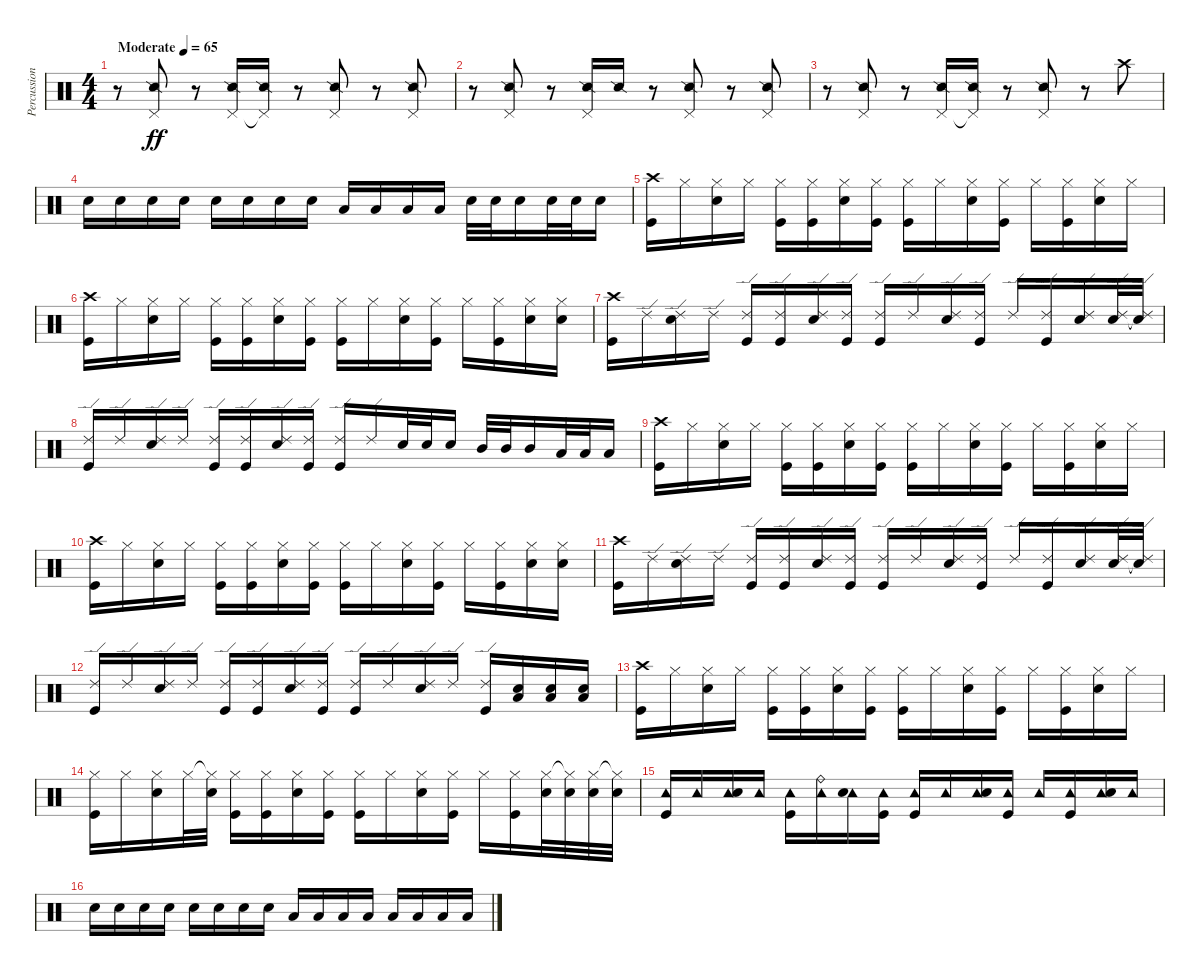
\track ("Percussioni" "Percussion") {instrument percussion}
\staff {score}
\articulation defaults
\ts (4 4)
\tempo (65 "Moderate")
\clef neutral
\ks c
r.8{dy ff} ("Pedal Hi-Hat (hit)" "Snare (side stick) 2").8 r.8 ("Pedal Hi-Hat (hit)" "Snare (side stick) 2").16 ("Pedal Hi-Hat (hit)"{t} "Snare (side stick) 2").16 r.8 ("Pedal Hi-Hat (hit)" "Snare (side stick) 2").8 r.8 ("Pedal Hi-Hat (hit)" "Snare (side stick) 2").8 |
r.8 ("Pedal Hi-Hat (hit)" "Snare (side stick) 2").8 r.8 ("Pedal Hi-Hat (hit)" "Snare (side stick) 2").16 "Snare (side stick) 2".16 r.8 ("Pedal Hi-Hat (hit)" "Snare (side stick) 2").8 r.8 ("Pedal Hi-Hat (hit)" "Snare (side stick) 2").8 |
r.8 ("Pedal Hi-Hat (hit)" "Snare (side stick) 2").8 r.8 ("Pedal Hi-Hat (hit)" "Snare (side stick) 2").16 ("Pedal Hi-Hat (hit)"{t} "Snare (side stick) 2").16 r.8 ("Pedal Hi-Hat (hit)" "Snare (side stick) 2").8 r.8 "Crash high (hit)".8 |
"Snare (hit) 2".16 "Snare (hit) 2".16 "Snare (hit) 2".16 "Snare (hit) 2".16 "Snare (hit) 2".16 "Snare (hit) 2".16 "Snare (hit) 2".16 "Snare (hit) 2".16 "Low Floor Tom (hit)".16 "Low Floor Tom (hit)".16 "Low Floor Tom (hit)".16 "Low Floor Tom (hit)".16 "Snare (hit) 2".32 "Snare (hit) 2".32 "Snare (hit) 2".16 "Snare (hit) 2".32 "Snare (hit) 2".32 "Snare (hit) 2".16 |
("Crash high (hit)" "Kick (hit)").16 "Hi-Hat (closed)".16 ("Hi-Hat (closed)" "Snare (hit) 2").16 "Hi-Hat (closed)".16 ("Hi-Hat (closed)" "Kick (hit)").16 ("Hi-Hat (closed)" "Kick (hit)").16 ("Hi-Hat (closed)" "Snare (hit) 2").16 ("Hi-Hat (closed)" "Kick (hit)").16 ("Hi-Hat (closed)" "Kick (hit)").16 "Hi-Hat (closed)".16 ("Hi-Hat (closed)" "Snare (hit) 2").16 ("Hi-Hat (closed)" "Kick (hit)").16 "Hi-Hat (closed)".16 ("Hi-Hat (closed)" "Kick (hit)").16 ("Hi-Hat (closed)" "Snare (hit) 2").16 "Hi-Hat (closed)".16 |
("Crash high (hit)" "Kick (hit)").16 "Hi-Hat (closed)".16 ("Hi-Hat (closed)" "Snare (hit) 2").16 "Hi-Hat (closed)".16 ("Hi-Hat (closed)" "Kick (hit)").16 ("Hi-Hat (closed)" "Kick (hit)").16 ("Hi-Hat (closed)" "Snare (hit) 2").16 ("Hi-Hat (closed)" "Kick (hit)").16 ("Hi-Hat (closed)" "Kick (hit)").16 "Hi-Hat (closed)".16 ("Hi-Hat (closed)" "Snare (hit) 2").16 ("Hi-Hat (closed)" "Kick (hit)").16 "Hi-Hat (closed)".16 ("Hi-Hat (closed)" "Kick (hit)").16 ("Hi-Hat (closed)" "Snare (hit) 2").16 ("Hi-Hat (closed)" "Snare (hit) 2").16 |
("Crash high (hit)" "Kick (hit)").16 "Ride (edge) 2".16 ("Ride (edge) 2" "Snare (hit) 2").16 "Ride (edge) 2".16 ("Ride (edge) 2" "Kick (hit)").16 ("Ride (edge) 2" "Kick (hit)").16 ("Ride (edge) 2" "Snare (hit) 2").16 ("Ride (edge) 2" "Kick (hit)").16 ("Ride (edge) 2" "Kick (hit)").16 "Ride (edge) 2".16 ("Ride (edge) 2" "Snare (hit) 2").16 ("Ride (edge) 2" "Kick (hit)").16 "Ride (edge) 2".16 ("Ride (edge) 2" "Kick (hit)").16 ("Ride (edge) 2" "Snare (hit) 2").16 ("Ride (edge) 2" "Snare (hit) 2").32 ("Ride (edge) 2"{t} "Snare (hit) 2").32 |
("Ride (edge) 2" "Kick (hit)").16 "Ride (edge) 2".16 ("Ride (edge) 2" "Snare (hit) 2").16 "Ride (edge) 2".16 ("Ride (edge) 2" "Kick (hit)").16 ("Ride (edge) 2" "Kick (hit)").16 ("Ride (edge) 2" "Snare (hit) 2").16 ("Ride (edge) 2" "Kick (hit)").16 ("Ride (edge) 2" "Kick (hit)").16 "Ride (edge) 2".16 "Snare (hit) 2".32 "Snare (hit) 2".32 "Snare (hit) 2".16 "Mid Tom (hit)".32 "Mid Tom (hit)".32 "Mid Tom (hit)".16 "Low Tom (hit)".32 "Low Tom (hit)".32 "Low Tom (hit)".16 |
("Crash high (hit)" "Kick (hit)").16 "Hi-Hat (closed)".16 ("Hi-Hat (closed)" "Snare (hit) 2").16 "Hi-Hat (closed)".16 ("Hi-Hat (closed)" "Kick (hit)").16 ("Hi-Hat (closed)" "Kick (hit)").16 ("Hi-Hat (closed)" "Snare (hit) 2").16 ("Hi-Hat (closed)" "Kick (hit)").16 ("Hi-Hat (closed)" "Kick (hit)").16 "Hi-Hat (closed)".16 ("Hi-Hat (closed)" "Snare (hit) 2").16 ("Hi-Hat (closed)" "Kick (hit)").16 "Hi-Hat (closed)".16 ("Hi-Hat (closed)" "Kick (hit)").16 ("Hi-Hat (closed)" "Snare (hit) 2").16 "Hi-Hat (closed)".16 |
("Crash high (hit)" "Kick (hit)").16 "Hi-Hat (closed)".16 ("Hi-Hat (closed)" "Snare (hit) 2").16 "Hi-Hat (closed)".16 ("Hi-Hat (closed)" "Kick (hit)").16 ("Hi-Hat (closed)" "Kick (hit)").16 ("Hi-Hat (closed)" "Snare (hit) 2").16 ("Hi-Hat (closed)" "Kick (hit)").16 ("Hi-Hat (closed)" "Kick (hit)").16 "Hi-Hat (closed)".16 ("Hi-Hat (closed)" "Snare (hit) 2").16 ("Hi-Hat (closed)" "Kick (hit)").16 "Hi-Hat (closed)".16 ("Hi-Hat (closed)" "Kick (hit)").16 ("Hi-Hat (closed)" "Snare (hit) 2").16 ("Hi-Hat (closed)" "Snare (hit) 2").16 |
("Crash high (hit)" "Kick (hit)").16 "Ride (edge) 2".16 ("Ride (edge) 2" "Snare (hit) 2").16 "Ride (edge) 2".16 ("Ride (edge) 2" "Kick (hit)").16 ("Ride (edge) 2" "Kick (hit)").16 ("Ride (edge) 2" "Snare (hit) 2").16 ("Ride (edge) 2" "Kick (hit)").16 ("Ride (edge) 2" "Kick (hit)").16 "Ride (edge) 2".16 ("Ride (edge) 2" "Snare (hit) 2").16 ("Ride (edge) 2" "Kick (hit)").16 "Ride (edge) 2".16 ("Ride (edge) 2" "Kick (hit)").16 ("Ride (edge) 2" "Snare (hit) 2").16 ("Ride (edge) 2" "Snare (hit) 2").32 ("Ride (edge) 2"{t} "Snare (hit) 2").32 |
("Ride (edge) 2" "Kick (hit)").16 "Ride (edge) 2".16 ("Ride (edge) 2" "Snare (hit) 2").16 "Ride (edge) 2".16 ("Ride (edge) 2" "Kick (hit)").16 ("Ride (edge) 2" "Kick (hit)").16 ("Ride (edge) 2" "Snare (hit) 2").16 ("Ride (edge) 2" "Kick (hit)").16 ("Ride (edge) 2" "Kick (hit)").16 "Ride (edge) 2".16 ("Ride (edge) 2" "Snare (hit) 2").16 "Ride (edge) 2".16 ("Ride (edge) 2" "Kick (hit)").16 ("Low Floor Tom (hit)" "Snare (hit) 2").16 ("Low Floor Tom (hit)" "Snare (hit) 2").16 ("Low Floor Tom (hit)" "Snare (hit) 2").16 |
("Crash high (hit)" "Kick (hit)").16 "Hi-Hat (closed)".16 ("Hi-Hat (closed)" "Snare (hit) 2").16 "Hi-Hat (closed)".16 ("Hi-Hat (closed)" "Kick (hit)").16 ("Hi-Hat (closed)" "Kick (hit)").16 ("Hi-Hat (closed)" "Snare (hit) 2").16 ("Hi-Hat (closed)" "Kick (hit)").16 ("Hi-Hat (closed)" "Kick (hit)").16 "Hi-Hat (closed)".16 ("Hi-Hat (closed)" "Snare (hit) 2").16 ("Hi-Hat (closed)" "Kick (hit)").16 "Hi-Hat (closed)".16 ("Hi-Hat (closed)" "Kick (hit)").16 ("Hi-Hat (closed)" "Snare (hit) 2").16 "Hi-Hat (closed)".16 |
("Hi-Hat (closed)" "Kick (hit)").16 "Hi-Hat (closed)".16 ("Hi-Hat (closed)" "Snare (hit) 2").16 "Hi-Hat (closed)".32 ("Hi-Hat (closed)"{t} "Snare (hit) 2").32 ("Hi-Hat (closed)" "Kick (hit)").16 ("Hi-Hat (closed)" "Kick (hit)").16 ("Hi-Hat (closed)" "Snare (hit) 2").16 ("Hi-Hat (closed)" "Kick (hit)").16 ("Hi-Hat (closed)" "Kick (hit)").16 "Hi-Hat (closed)".16 ("Hi-Hat (closed)" "Snare (hit) 2").16 ("Hi-Hat (closed)" "Kick (hit)").16 "Hi-Hat (closed)".16 ("Hi-Hat (closed)" "Kick (hit)").16 ("Hi-Hat (closed)" "Snare (hit) 2").32 ("Hi-Hat (closed)"{t} "Snare (hit) 2").32 ("Hi-Hat (closed)" "Snare (hit) 2").32 ("Hi-Hat (closed)"{t} "Snare (hit) 2").32 |
("Tambourine (hit)" "Kick (hit)").16 "Tambourine (hit)".16 ("Tambourine (hit)" "Snare (hit) 2").16 "Tambourine (hit)".16 ("Tambourine (hit)" "Kick (hit)").16 ("Tambourine (hit)" "Ride (bell)").16 ("Tambourine (hit)" "Snare (hit) 2").16 ("Tambourine (hit)" "Kick (hit)").16 ("Tambourine (hit)" "Kick (hit)").16 "Tambourine (hit)".16 ("Tambourine (hit)" "Snare (hit) 2").16 ("Tambourine (hit)" "Kick (hit)").16 "Tambourine (hit)".16 ("Tambourine (hit)" "Kick (hit)").16 ("Tambourine (hit)" "Snare (hit) 2").16 "Tambourine (hit)".16 |
"Snare (hit) 2".16 "Snare (hit) 2".16 "Snare (hit) 2".16 "Snare (hit) 2".16 "Snare (hit) 2".16 "Snare (hit) 2".16 "Snare (hit) 2".16 "Snare (hit) 2".16 "Low Floor Tom (hit)".16 "Low Floor Tom (hit)".16 "Low Floor Tom (hit)".16 "Low Floor Tom (hit)".16 "Low Floor Tom (hit)".16 "Low Floor Tom (hit)".16 "Low Floor Tom (hit)".16 "Low Floor Tom (hit)".16
